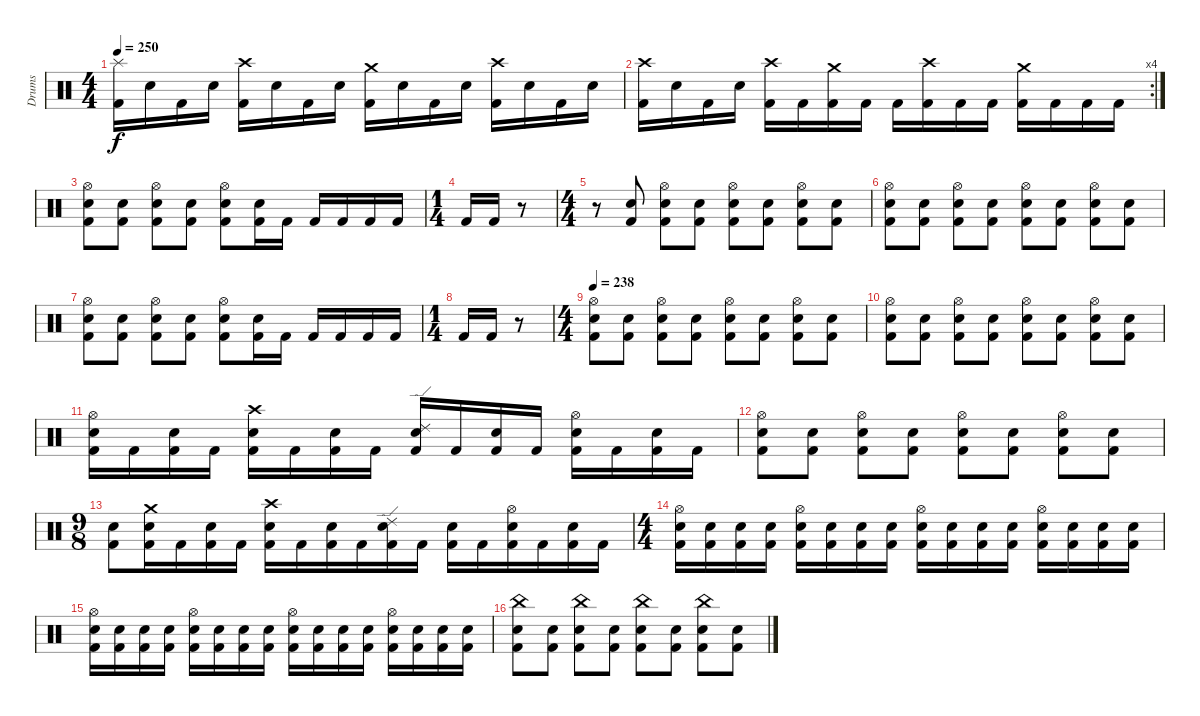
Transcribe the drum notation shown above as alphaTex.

\track ("Drums" "Drums") {instrument percussion}
\staff {score}
\articulation defaults
\ts (4 4)
\tempo 250
\clef neutral
\ks c
("Kick (hit) 2" "Splash (hit)").16{dy f} "Electric Snare (hit)".16 "Kick (hit) 2".16 "Electric Snare (hit)".16 ("Kick (hit) 2" "Crash high (hit)").16 "Electric Snare (hit)".16 "Kick (hit) 2".16 "Electric Snare (hit)".16 ("Kick (hit) 2" "Crash medium (hit)").16 "Electric Snare (hit)".16 "Kick (hit) 2".16 "Electric Snare (hit)".16 ("Kick (hit) 2" "Crash high (hit)").16 "Electric Snare (hit)".16 "Kick (hit) 2".16 "Electric Snare (hit)".16 |
\rc 4
("Kick (hit) 2" "Crash high (hit)").16 "Electric Snare (hit)".16 "Kick (hit) 2".16 "Electric Snare (hit)".16 ("Kick (hit) 2" "Crash high (hit)").16 "Kick (hit) 2".16 ("Kick (hit) 2" "Crash medium (hit)").16 "Kick (hit) 2".16 "Kick (hit) 2".16 ("Kick (hit) 2" "Crash high (hit)").16 "Kick (hit) 2".16 "Kick (hit) 2".16 ("Kick (hit) 2" "Crash medium (hit)").16 "Kick (hit) 2".16 "Kick (hit) 2".16 "Kick (hit) 2".16 |
("Kick (hit) 2" "Electric Snare (hit)" "Hi-Hat (open)").8 ("Kick (hit) 2" "Electric Snare (hit)").8 ("Kick (hit) 2" "Electric Snare (hit)" "Hi-Hat (open)").8 ("Kick (hit) 2" "Electric Snare (hit)").8 ("Kick (hit) 2" "Electric Snare (hit)" "Hi-Hat (open)").8 ("Kick (hit) 2" "Electric Snare (hit)").16 "Kick (hit) 2".16 "Kick (hit) 2".16 "Kick (hit) 2".16 "Kick (hit) 2".16 "Kick (hit) 2".16 |
\ts (1 4)
"Kick (hit) 2".16 "Kick (hit) 2".16 r.8 |
\ts (4 4)
r.8 ("Kick (hit) 2" "Electric Snare (hit)").8 ("Kick (hit) 2" "Electric Snare (hit)" "Hi-Hat (open)").8 ("Kick (hit) 2" "Electric Snare (hit)").8 ("Kick (hit) 2" "Electric Snare (hit)" "Hi-Hat (open)").8 ("Kick (hit) 2" "Electric Snare (hit)").8 ("Kick (hit) 2" "Electric Snare (hit)" "Hi-Hat (open)").8 ("Kick (hit) 2" "Electric Snare (hit)").8 |
("Kick (hit) 2" "Electric Snare (hit)" "Hi-Hat (open)").8 ("Kick (hit) 2" "Electric Snare (hit)").8 ("Kick (hit) 2" "Electric Snare (hit)" "Hi-Hat (open)").8 ("Kick (hit) 2" "Electric Snare (hit)").8 ("Kick (hit) 2" "Electric Snare (hit)" "Hi-Hat (open)").8 ("Kick (hit) 2" "Electric Snare (hit)").8 ("Kick (hit) 2" "Electric Snare (hit)" "Hi-Hat (open)").8 ("Kick (hit) 2" "Electric Snare (hit)").8 |
("Kick (hit) 2" "Electric Snare (hit)" "Hi-Hat (open)").8 ("Kick (hit) 2" "Electric Snare (hit)").8 ("Kick (hit) 2" "Electric Snare (hit)" "Hi-Hat (open)").8 ("Kick (hit) 2" "Electric Snare (hit)").8 ("Kick (hit) 2" "Electric Snare (hit)" "Hi-Hat (open)").8 ("Kick (hit) 2" "Electric Snare (hit)").16 "Kick (hit) 2".16 "Kick (hit) 2".16 "Kick (hit) 2".16 "Kick (hit) 2".16 "Kick (hit) 2".16 |
\ts (1 4)
"Kick (hit) 2".16 "Kick (hit) 2".16 r.8 |
\ts (4 4)
\tempo 238
("Kick (hit) 2" "Electric Snare (hit)" "Hi-Hat (open)").8 ("Kick (hit) 2" "Electric Snare (hit)").8 ("Kick (hit) 2" "Electric Snare (hit)" "Hi-Hat (open)").8 ("Kick (hit) 2" "Electric Snare (hit)").8 ("Kick (hit) 2" "Electric Snare (hit)" "Hi-Hat (open)").8 ("Kick (hit) 2" "Electric Snare (hit)").8 ("Kick (hit) 2" "Electric Snare (hit)" "Hi-Hat (open)").8 ("Kick (hit) 2" "Electric Snare (hit)").8 |
("Kick (hit) 2" "Electric Snare (hit)" "Hi-Hat (open)").8 ("Kick (hit) 2" "Electric Snare (hit)").8 ("Kick (hit) 2" "Electric Snare (hit)" "Hi-Hat (open)").8 ("Kick (hit) 2" "Electric Snare (hit)").8 ("Kick (hit) 2" "Electric Snare (hit)" "Hi-Hat (open)").8 ("Kick (hit) 2" "Electric Snare (hit)").8 ("Kick (hit) 2" "Electric Snare (hit)" "Hi-Hat (open)").8 ("Kick (hit) 2" "Electric Snare (hit)").8 |
("Kick (hit) 2" "Electric Snare (hit)" "Hi-Hat (open)").16 "Kick (hit) 2".16 ("Kick (hit) 2" "Electric Snare (hit)").16 "Kick (hit) 2".16 ("Kick (hit) 2" "Electric Snare (hit)" "Crash high (hit)").16 "Kick (hit) 2".16 ("Kick (hit) 2" "Electric Snare (hit)").16 "Kick (hit) 2".16 ("Kick (hit) 2" "Electric Snare (hit)" "Ride (edge) 2").16 "Kick (hit) 2".16 ("Kick (hit) 2" "Electric Snare (hit)").16 "Kick (hit) 2".16 ("Kick (hit) 2" "Electric Snare (hit)" "Hi-Hat (open)").16 "Kick (hit) 2".16 ("Kick (hit) 2" "Electric Snare (hit)").16 "Kick (hit) 2".16 |
("Kick (hit) 2" "Electric Snare (hit)" "Hi-Hat (open)").8 ("Kick (hit) 2" "Electric Snare (hit)").8 ("Kick (hit) 2" "Electric Snare (hit)" "Hi-Hat (open)").8 ("Kick (hit) 2" "Electric Snare (hit)").8 ("Kick (hit) 2" "Electric Snare (hit)" "Hi-Hat (open)").8 ("Kick (hit) 2" "Electric Snare (hit)").8 ("Kick (hit) 2" "Electric Snare (hit)" "Hi-Hat (open)").8 ("Kick (hit) 2" "Electric Snare (hit)").8 |
\ts (9 8)
("Kick (hit) 2" "Electric Snare (hit)").8 ("Kick (hit) 2" "Electric Snare (hit)" "Crash medium (hit)").16 "Kick (hit) 2".16 ("Kick (hit) 2" "Electric Snare (hit)").16 "Kick (hit) 2".16 ("Kick (hit) 2" "Electric Snare (hit)" "Crash high (hit)").16 "Kick (hit) 2".16 ("Kick (hit) 2" "Electric Snare (hit)").16 "Kick (hit) 2".16 ("Kick (hit) 2" "Electric Snare (hit)" "Ride (edge) 2").16 "Kick (hit) 2".16 ("Kick (hit) 2" "Electric Snare (hit)").16 "Kick (hit) 2".16 ("Kick (hit) 2" "Electric Snare (hit)" "Hi-Hat (open)").16 "Kick (hit) 2".16 ("Kick (hit) 2" "Electric Snare (hit)").16 "Kick (hit) 2".16 |
\ts (4 4)
("Kick (hit) 2" "Electric Snare (hit)" "Hi-Hat (open)").16 ("Kick (hit) 2" "Electric Snare (hit)").16 ("Kick (hit) 2" "Electric Snare (hit)").16 ("Kick (hit) 2" "Electric Snare (hit)").16 ("Kick (hit) 2" "Electric Snare (hit)" "Hi-Hat (open)").16 ("Kick (hit) 2" "Electric Snare (hit)").16 ("Kick (hit) 2" "Electric Snare (hit)").16 ("Kick (hit) 2" "Electric Snare (hit)").16 ("Kick (hit) 2" "Electric Snare (hit)" "Hi-Hat (open)").16 ("Kick (hit) 2" "Electric Snare (hit)").16 ("Kick (hit) 2" "Electric Snare (hit)").16 ("Kick (hit) 2" "Electric Snare (hit)").16 ("Kick (hit) 2" "Electric Snare (hit)" "Hi-Hat (open)").16 ("Kick (hit) 2" "Electric Snare (hit)").16 ("Kick (hit) 2" "Electric Snare (hit)").16 ("Kick (hit) 2" "Electric Snare (hit)").16 |
("Kick (hit) 2" "Electric Snare (hit)" "Hi-Hat (open)").16 ("Kick (hit) 2" "Electric Snare (hit)").16 ("Kick (hit) 2" "Electric Snare (hit)").16 ("Kick (hit) 2" "Electric Snare (hit)").16 ("Kick (hit) 2" "Electric Snare (hit)" "Hi-Hat (open)").16 ("Kick (hit) 2" "Electric Snare (hit)").16 ("Kick (hit) 2" "Electric Snare (hit)").16 ("Kick (hit) 2" "Electric Snare (hit)").16 ("Kick (hit) 2" "Electric Snare (hit)" "Hi-Hat (open)").16 ("Kick (hit) 2" "Electric Snare (hit)").16 ("Kick (hit) 2" "Electric Snare (hit)").16 ("Kick (hit) 2" "Electric Snare (hit)").16 ("Kick (hit) 2" "Electric Snare (hit)" "Hi-Hat (open)").16 ("Kick (hit) 2" "Electric Snare (hit)").16 ("Kick (hit) 2" "Electric Snare (hit)").16 ("Kick (hit) 2" "Electric Snare (hit)").16 |
("Kick (hit) 2" "Electric Snare (hit)" "China (hit)").8 ("Kick (hit) 2" "Electric Snare (hit)").8 ("Kick (hit) 2" "Electric Snare (hit)" "China (hit)").8 ("Kick (hit) 2" "Electric Snare (hit)").8 ("Kick (hit) 2" "Electric Snare (hit)" "China (hit)").8 ("Kick (hit) 2" "Electric Snare (hit)").8 ("Kick (hit) 2" "Electric Snare (hit)" "China (hit)").8 ("Kick (hit) 2" "Electric Snare (hit)").8
